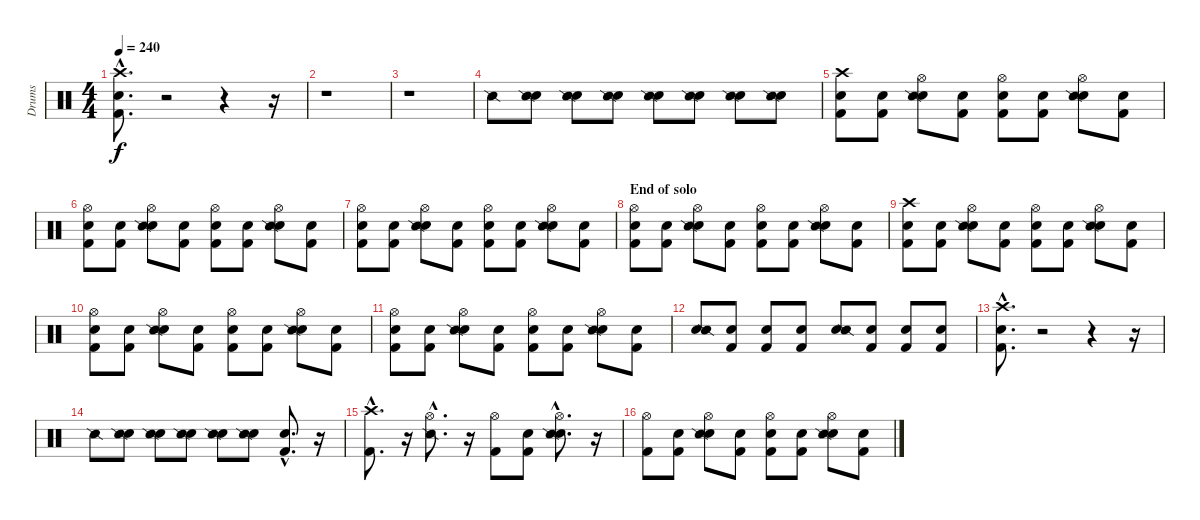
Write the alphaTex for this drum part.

\track ("Drums" "Drums") {instrument percussion}
\staff {score}
\articulation defaults
\ts (4 4)
\tempo 240
\clef neutral
\ks c
("Snare (hit)"{hac} "Kick (hit) 2"{hac} "Crash high (hit)"{hac}).8{d dy f} r.2 r.4 r.16 |
r.1 |
r.1 |
"Snare (side stick) 2".8 ("Snare (hit)" "Snare (side stick) 2").8 ("Snare (hit)" "Snare (side stick) 2").8 ("Snare (hit)" "Snare (side stick) 2").8 ("Snare (hit)" "Snare (side stick) 2").8 ("Snare (hit)" "Snare (side stick) 2").8 ("Snare (hit)" "Snare (side stick) 2").8 ("Snare (hit)" "Snare (side stick) 2").8 |
("Snare (hit)" "Kick (hit) 2" "Crash high (hit)").8 ("Snare (hit)" "Kick (hit) 2").8 ("Snare (hit)" "Hi-Hat (open)" "Snare (side stick) 2").8 ("Snare (hit)" "Kick (hit) 2").8 ("Snare (hit)" "Kick (hit) 2" "Hi-Hat (open)").8 ("Snare (hit)" "Kick (hit) 2").8 ("Snare (hit)" "Hi-Hat (open)" "Snare (side stick) 2").8 ("Snare (hit)" "Kick (hit) 2").8 |
("Snare (hit)" "Kick (hit) 2" "Hi-Hat (open)").8 ("Snare (hit)" "Kick (hit) 2").8 ("Snare (hit)" "Hi-Hat (open)" "Snare (side stick) 2").8 ("Snare (hit)" "Kick (hit) 2").8 ("Snare (hit)" "Kick (hit) 2" "Hi-Hat (open)").8 ("Snare (hit)" "Kick (hit) 2").8 ("Snare (hit)" "Hi-Hat (open)" "Snare (side stick) 2").8 ("Snare (hit)" "Kick (hit) 2").8 |
("Snare (hit)" "Kick (hit) 2" "Hi-Hat (open)").8 ("Snare (hit)" "Kick (hit) 2").8 ("Snare (hit)" "Hi-Hat (open)" "Snare (side stick) 2").8 ("Snare (hit)" "Kick (hit) 2").8 ("Snare (hit)" "Kick (hit) 2" "Hi-Hat (open)").8 ("Snare (hit)" "Kick (hit) 2").8 ("Snare (hit)" "Hi-Hat (open)" "Snare (side stick) 2").8 ("Snare (hit)" "Kick (hit) 2").8 |
\section ("" "End of solo")
("Snare (hit)" "Kick (hit) 2" "Hi-Hat (open)").8 ("Snare (hit)" "Kick (hit) 2").8 ("Snare (hit)" "Hi-Hat (open)" "Snare (side stick) 2").8 ("Snare (hit)" "Kick (hit) 2").8 ("Snare (hit)" "Kick (hit) 2" "Hi-Hat (open)").8 ("Snare (hit)" "Kick (hit) 2").8 ("Snare (hit)" "Hi-Hat (open)" "Snare (side stick) 2").8 ("Snare (hit)" "Kick (hit) 2").8 |
("Snare (hit)" "Kick (hit) 2" "Crash high (hit)").8 ("Snare (hit)" "Kick (hit) 2").8 ("Snare (hit)" "Hi-Hat (open)" "Snare (side stick) 2").8 ("Snare (hit)" "Kick (hit) 2").8 ("Snare (hit)" "Kick (hit) 2" "Hi-Hat (open)").8 ("Snare (hit)" "Kick (hit) 2").8 ("Snare (hit)" "Hi-Hat (open)" "Snare (side stick) 2").8 ("Snare (hit)" "Kick (hit) 2").8 |
("Snare (hit)" "Kick (hit) 2" "Hi-Hat (open)").8 ("Snare (hit)" "Kick (hit) 2").8 ("Snare (hit)" "Hi-Hat (open)" "Snare (side stick) 2").8 ("Snare (hit)" "Kick (hit) 2").8 ("Snare (hit)" "Kick (hit) 2" "Hi-Hat (open)").8 ("Snare (hit)" "Kick (hit) 2").8 ("Snare (hit)" "Hi-Hat (open)" "Snare (side stick) 2").8 ("Snare (hit)" "Kick (hit) 2").8 |
("Snare (hit)" "Kick (hit) 2" "Hi-Hat (open)").8 ("Snare (hit)" "Kick (hit) 2").8 ("Snare (hit)" "Hi-Hat (open)" "Snare (side stick) 2").8 ("Snare (hit)" "Kick (hit) 2").8 ("Snare (hit)" "Kick (hit) 2" "Hi-Hat (open)").8 ("Snare (hit)" "Kick (hit) 2").8 ("Snare (hit)" "Hi-Hat (open)" "Snare (side stick) 2").8 ("Snare (hit)" "Kick (hit) 2").8 |
("Snare (hit)" "Snare (side stick) 2").8 ("Snare (hit)" "Kick (hit) 2").8 ("Snare (hit)" "Kick (hit) 2").8 ("Snare (hit)" "Kick (hit) 2").8 ("Snare (hit)" "Snare (side stick) 2").8 ("Snare (hit)" "Kick (hit) 2").8 ("Snare (hit)" "Kick (hit) 2").8 ("Snare (hit)" "Kick (hit) 2").8 |
("Snare (hit)"{hac} "Kick (hit) 2"{hac} "Crash high (hit)"{hac}).8{d} r.2 r.4 r.16 |
"Snare (side stick) 2".8 ("Snare (hit)" "Snare (side stick) 2").8 ("Snare (hit)" "Snare (side stick) 2").8 ("Snare (hit)" "Snare (side stick) 2").8 ("Snare (hit)" "Snare (side stick) 2").8 ("Snare (hit)" "Snare (side stick) 2").8 ("Snare (hit)"{hac} "Kick (hit) 2"{hac}).8{d} r.16 |
("Kick (hit) 2"{hac} "Crash high (hit)"{hac}).8{d} r.16 ("Hi-Hat (open)"{hac} "Snare (side stick) 2"{hac}).8{d} r.16 ("Kick (hit) 2" "Hi-Hat (open)").8 ("Snare (hit)" "Kick (hit) 2").8 ("Snare (hit)"{hac} "Hi-Hat (open)"{hac} "Snare (side stick) 2"{hac}).8{d} r.16 |
("Kick (hit) 2" "Hi-Hat (open)").8 ("Snare (hit)" "Kick (hit) 2").8 ("Snare (hit)" "Hi-Hat (open)" "Snare (side stick) 2").8 ("Snare (hit)" "Kick (hit) 2").8 ("Snare (hit)" "Kick (hit) 2" "Hi-Hat (open)").8 ("Snare (hit)" "Kick (hit) 2").8 ("Snare (hit)" "Hi-Hat (open)" "Snare (side stick) 2").8 ("Snare (hit)" "Kick (hit) 2").8
